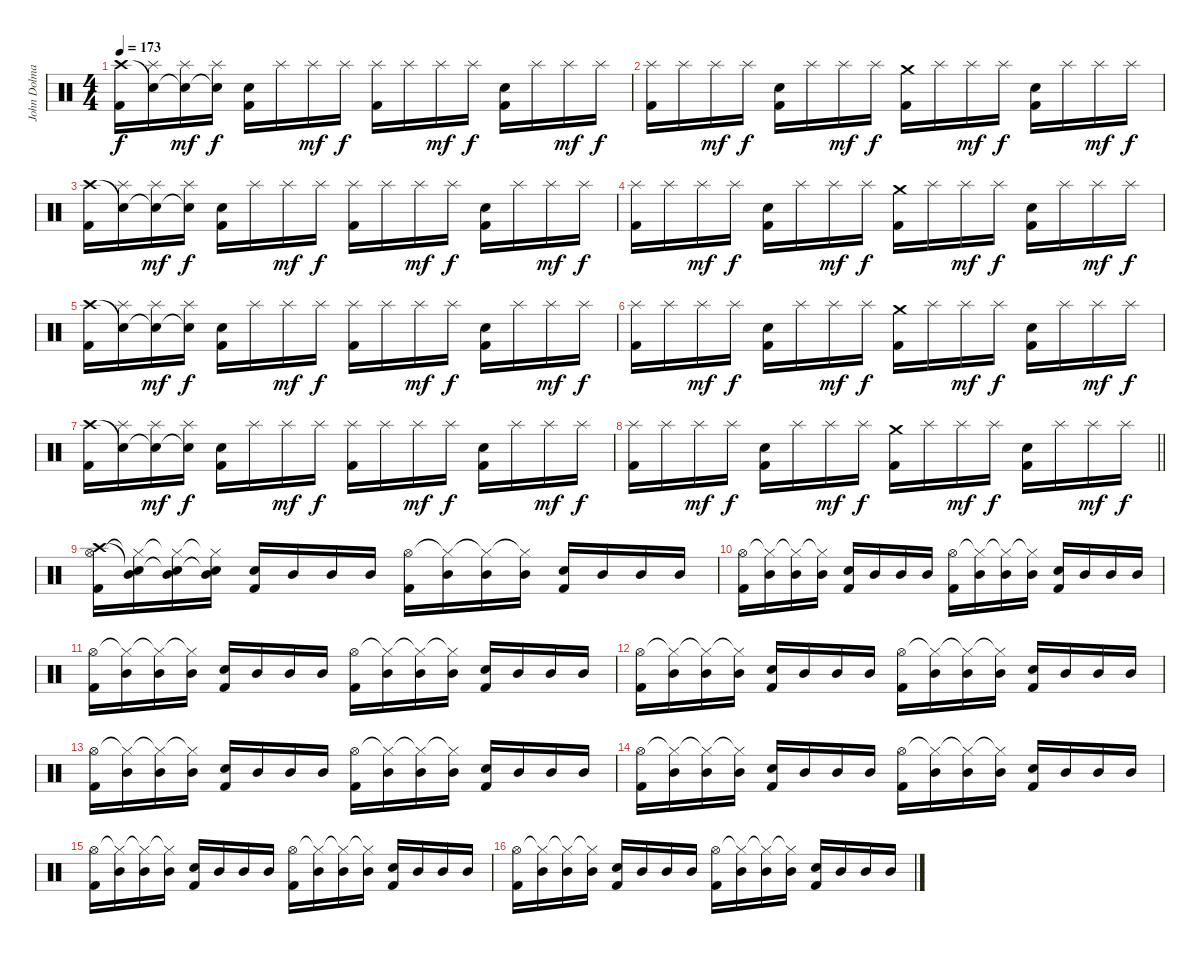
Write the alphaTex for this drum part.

\track ("John Dolmayan" "John Dolma") {instrument percussion}
\staff {score}
\articulation defaults
\ts (4 4)
\tempo 173
\clef neutral
\ks c
("Crash high (hit)" "Kick (hit) 2").16{dy f} ("Snare (hit)"{t} "Splash (hit)").16 ("Snare (hit)"{t} "Splash (hit)").16{dy mf} ("Snare (hit)"{t} "Splash (hit)").16{dy f} ("Electric Snare (hit)" "Kick (hit) 2").16 "Splash (hit)".16 "Splash (hit)".16{dy mf} "Splash (hit)".16{dy f} ("Splash (hit)" "Kick (hit) 2").16 "Splash (hit)".16 "Splash (hit)".16{dy mf} "Splash (hit)".16{dy f} ("Electric Snare (hit)" "Kick (hit) 2").16 "Splash (hit)".16 "Splash (hit)".16{dy mf} "Splash (hit)".16{dy f} |
("Splash (hit)" "Kick (hit) 2").16 "Splash (hit)".16 "Splash (hit)".16{dy mf} "Splash (hit)".16{dy f} ("Electric Snare (hit)" "Kick (hit) 2").16 "Splash (hit)".16 "Splash (hit)".16{dy mf} "Splash (hit)".16{dy f} ("Crash medium (hit)" "Kick (hit) 2").16 "Splash (hit)".16 "Splash (hit)".16{dy mf} "Splash (hit)".16{dy f} ("Electric Snare (hit)" "Kick (hit) 2").16 "Splash (hit)".16 "Splash (hit)".16{dy mf} "Splash (hit)".16{dy f} |
("Crash high (hit)" "Kick (hit) 2").16 ("Snare (hit)"{t} "Splash (hit)").16 ("Snare (hit)"{t} "Splash (hit)").16{dy mf} ("Snare (hit)"{t} "Splash (hit)").16{dy f} ("Electric Snare (hit)" "Kick (hit) 2").16 "Splash (hit)".16 "Splash (hit)".16{dy mf} "Splash (hit)".16{dy f} ("Splash (hit)" "Kick (hit) 2").16 "Splash (hit)".16 "Splash (hit)".16{dy mf} "Splash (hit)".16{dy f} ("Electric Snare (hit)" "Kick (hit) 2").16 "Splash (hit)".16 "Splash (hit)".16{dy mf} "Splash (hit)".16{dy f} |
("Splash (hit)" "Kick (hit) 2").16 "Splash (hit)".16 "Splash (hit)".16{dy mf} "Splash (hit)".16{dy f} ("Electric Snare (hit)" "Kick (hit) 2").16 "Splash (hit)".16 "Splash (hit)".16{dy mf} "Splash (hit)".16{dy f} ("Crash medium (hit)" "Kick (hit) 2").16 "Splash (hit)".16 "Splash (hit)".16{dy mf} "Splash (hit)".16{dy f} ("Electric Snare (hit)" "Kick (hit) 2").16 "Splash (hit)".16 "Splash (hit)".16{dy mf} "Splash (hit)".16{dy f} |
("Crash high (hit)" "Kick (hit) 2").16 ("Snare (hit)"{t} "Splash (hit)").16 ("Snare (hit)"{t} "Splash (hit)").16{dy mf} ("Snare (hit)"{t} "Splash (hit)").16{dy f} ("Electric Snare (hit)" "Kick (hit) 2").16 "Splash (hit)".16 "Splash (hit)".16{dy mf} "Splash (hit)".16{dy f} ("Splash (hit)" "Kick (hit) 2").16 "Splash (hit)".16 "Splash (hit)".16{dy mf} "Splash (hit)".16{dy f} ("Electric Snare (hit)" "Kick (hit) 2").16 "Splash (hit)".16 "Splash (hit)".16{dy mf} "Splash (hit)".16{dy f} |
("Splash (hit)" "Kick (hit) 2").16 "Splash (hit)".16 "Splash (hit)".16{dy mf} "Splash (hit)".16{dy f} ("Electric Snare (hit)" "Kick (hit) 2").16 "Splash (hit)".16 "Splash (hit)".16{dy mf} "Splash (hit)".16{dy f} ("Crash medium (hit)" "Kick (hit) 2").16 "Splash (hit)".16 "Splash (hit)".16{dy mf} "Splash (hit)".16{dy f} ("Electric Snare (hit)" "Kick (hit) 2").16 "Splash (hit)".16 "Splash (hit)".16{dy mf} "Splash (hit)".16{dy f} |
("Crash high (hit)" "Kick (hit) 2").16 ("Snare (hit)"{t} "Splash (hit)").16 ("Snare (hit)"{t} "Splash (hit)").16{dy mf} ("Snare (hit)"{t} "Splash (hit)").16{dy f} ("Electric Snare (hit)" "Kick (hit) 2").16 "Splash (hit)".16 "Splash (hit)".16{dy mf} "Splash (hit)".16{dy f} ("Splash (hit)" "Kick (hit) 2").16 "Splash (hit)".16 "Splash (hit)".16{dy mf} "Splash (hit)".16{dy f} ("Electric Snare (hit)" "Kick (hit) 2").16 "Splash (hit)".16 "Splash (hit)".16{dy mf} "Splash (hit)".16{dy f} |
\barLineRight lightlight
("Splash (hit)" "Kick (hit) 2").16 "Splash (hit)".16 "Splash (hit)".16{dy mf} "Splash (hit)".16{dy f} ("Electric Snare (hit)" "Kick (hit) 2").16 "Splash (hit)".16 "Splash (hit)".16{dy mf} "Splash (hit)".16{dy f} ("Crash medium (hit)" "Kick (hit) 2").16 "Splash (hit)".16 "Splash (hit)".16{dy mf} "Splash (hit)".16{dy f} ("Electric Snare (hit)" "Kick (hit) 2").16 "Splash (hit)".16 "Splash (hit)".16{dy mf} "Splash (hit)".16{dy f} |
("Crash high (hit)" "Hi-Hat (open)" "Kick (hit) 2").16 ("Snare (hit)"{t} "Hi-Hat (closed)"{t} "Mid Tom (hit)").16 ("Snare (hit)"{t} "Hi-Hat (closed)"{t} "Mid Tom (hit)").16 ("Snare (hit)"{t} "Hi-Hat (closed)"{t} "Mid Tom (hit)").16 ("Electric Snare (hit)" "Kick (hit) 2").16 "Mid Tom (hit)".16 "Mid Tom (hit)".16 "Mid Tom (hit)".16 ("Hi-Hat (open)" "Kick (hit) 2").16 ("Hi-Hat (closed)"{t} "Mid Tom (hit)").16 ("Hi-Hat (closed)"{t} "Mid Tom (hit)").16 ("Hi-Hat (closed)"{t} "Mid Tom (hit)").16 ("Electric Snare (hit)" "Kick (hit) 2").16 "Mid Tom (hit)".16 "Mid Tom (hit)".16 "Mid Tom (hit)".16 |
("Hi-Hat (open)" "Kick (hit) 2").16 ("Hi-Hat (closed)"{t} "Mid Tom (hit)").16 ("Hi-Hat (closed)"{t} "Mid Tom (hit)").16 ("Hi-Hat (closed)"{t} "Mid Tom (hit)").16 ("Electric Snare (hit)" "Kick (hit) 2").16 "Mid Tom (hit)".16 "Mid Tom (hit)".16 "Mid Tom (hit)".16 ("Hi-Hat (open)" "Kick (hit) 2").16 ("Hi-Hat (closed)"{t} "Mid Tom (hit)").16 ("Hi-Hat (closed)"{t} "Mid Tom (hit)").16 ("Hi-Hat (closed)"{t} "Mid Tom (hit)").16 ("Electric Snare (hit)" "Kick (hit) 2").16 "Mid Tom (hit)".16 "Mid Tom (hit)".16 "Mid Tom (hit)".16 |
("Hi-Hat (open)" "Kick (hit) 2").16 ("Hi-Hat (closed)"{t} "Mid Tom (hit)").16 ("Hi-Hat (closed)"{t} "Mid Tom (hit)").16 ("Hi-Hat (closed)"{t} "Mid Tom (hit)").16 ("Electric Snare (hit)" "Kick (hit) 2").16 "Mid Tom (hit)".16 "Mid Tom (hit)".16 "Mid Tom (hit)".16 ("Hi-Hat (open)" "Kick (hit) 2").16 ("Hi-Hat (closed)"{t} "Mid Tom (hit)").16 ("Hi-Hat (closed)"{t} "Mid Tom (hit)").16 ("Hi-Hat (closed)"{t} "Mid Tom (hit)").16 ("Electric Snare (hit)" "Kick (hit) 2").16 "Mid Tom (hit)".16 "Mid Tom (hit)".16 "Mid Tom (hit)".16 |
("Hi-Hat (open)" "Kick (hit) 2").16 ("Hi-Hat (closed)"{t} "Mid Tom (hit)").16 ("Hi-Hat (closed)"{t} "Mid Tom (hit)").16 ("Hi-Hat (closed)"{t} "Mid Tom (hit)").16 ("Electric Snare (hit)" "Kick (hit) 2").16 "Mid Tom (hit)".16 "Mid Tom (hit)".16 "Mid Tom (hit)".16 ("Hi-Hat (open)" "Kick (hit) 2").16 ("Hi-Hat (closed)"{t} "Mid Tom (hit)").16 ("Hi-Hat (closed)"{t} "Mid Tom (hit)").16 ("Hi-Hat (closed)"{t} "Mid Tom (hit)").16 ("Electric Snare (hit)" "Kick (hit) 2").16 "Mid Tom (hit)".16 "Mid Tom (hit)".16 "Mid Tom (hit)".16 |
("Hi-Hat (open)" "Kick (hit) 2").16 ("Hi-Hat (closed)"{t} "Mid Tom (hit)").16 ("Hi-Hat (closed)"{t} "Mid Tom (hit)").16 ("Hi-Hat (closed)"{t} "Mid Tom (hit)").16 ("Electric Snare (hit)" "Kick (hit) 2").16 "Mid Tom (hit)".16 "Mid Tom (hit)".16 "Mid Tom (hit)".16 ("Hi-Hat (open)" "Kick (hit) 2").16 ("Hi-Hat (closed)"{t} "Mid Tom (hit)").16 ("Hi-Hat (closed)"{t} "Mid Tom (hit)").16 ("Hi-Hat (closed)"{t} "Mid Tom (hit)").16 ("Electric Snare (hit)" "Kick (hit) 2").16 "Mid Tom (hit)".16 "Mid Tom (hit)".16 "Mid Tom (hit)".16 |
("Hi-Hat (open)" "Kick (hit) 2").16 ("Hi-Hat (closed)"{t} "Mid Tom (hit)").16 ("Hi-Hat (closed)"{t} "Mid Tom (hit)").16 ("Hi-Hat (closed)"{t} "Mid Tom (hit)").16 ("Electric Snare (hit)" "Kick (hit) 2").16 "Mid Tom (hit)".16 "Mid Tom (hit)".16 "Mid Tom (hit)".16 ("Hi-Hat (open)" "Kick (hit) 2").16 ("Hi-Hat (closed)"{t} "Mid Tom (hit)").16 ("Hi-Hat (closed)"{t} "Mid Tom (hit)").16 ("Hi-Hat (closed)"{t} "Mid Tom (hit)").16 ("Electric Snare (hit)" "Kick (hit) 2").16 "Mid Tom (hit)".16 "Mid Tom (hit)".16 "Mid Tom (hit)".16 |
("Hi-Hat (open)" "Kick (hit) 2").16 ("Hi-Hat (closed)"{t} "Mid Tom (hit)").16 ("Hi-Hat (closed)"{t} "Mid Tom (hit)").16 ("Hi-Hat (closed)"{t} "Mid Tom (hit)").16 ("Electric Snare (hit)" "Kick (hit) 2").16 "Mid Tom (hit)".16 "Mid Tom (hit)".16 "Mid Tom (hit)".16 ("Hi-Hat (open)" "Kick (hit) 2").16 ("Hi-Hat (closed)"{t} "Mid Tom (hit)").16 ("Hi-Hat (closed)"{t} "Mid Tom (hit)").16 ("Hi-Hat (closed)"{t} "Mid Tom (hit)").16 ("Electric Snare (hit)" "Kick (hit) 2").16 "Mid Tom (hit)".16 "Mid Tom (hit)".16 "Mid Tom (hit)".16 |
("Hi-Hat (open)" "Kick (hit) 2").16 ("Hi-Hat (closed)"{t} "Mid Tom (hit)").16 ("Hi-Hat (closed)"{t} "Mid Tom (hit)").16 ("Hi-Hat (closed)"{t} "Mid Tom (hit)").16 ("Electric Snare (hit)" "Kick (hit) 2").16 "Mid Tom (hit)".16 "Mid Tom (hit)".16 "Mid Tom (hit)".16 ("Hi-Hat (open)" "Kick (hit) 2").16 ("Hi-Hat (closed)"{t} "Mid Tom (hit)").16 ("Hi-Hat (closed)"{t} "Mid Tom (hit)").16 ("Hi-Hat (closed)"{t} "Mid Tom (hit)").16 ("Electric Snare (hit)" "Kick (hit) 2").16 "Mid Tom (hit)".16 "Mid Tom (hit)".16 "Mid Tom (hit)".16
